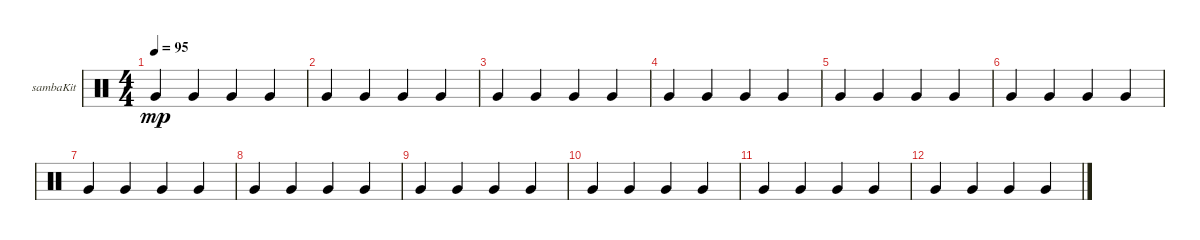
\defaultSystemsLayout 4
\bracketExtendMode groupsimilarinstruments
\firstSystemTrackNameOrientation horizontal
\otherSystemsTrackNameOrientation horizontal
\track ("Kit-Samba" "sambaKit") {instrument percussion}
\staff {score}
\articulation defaults
\ts (4 4)
\tempo 95
\clef neutral
\ks c "Very Low Tom (hit)".4{dy mp} "Very Low Tom (hit)".4 "Very Low Tom (hit)".4 "Very Low Tom (hit)".4
|
"Very Low Tom (hit)".4 "Very Low Tom (hit)".4 "Very Low Tom (hit)".4 "Very Low Tom (hit)".4 |
"Very Low Tom (hit)".4 "Very Low Tom (hit)".4 "Very Low Tom (hit)".4 "Very Low Tom (hit)".4 |
"Very Low Tom (hit)".4 "Very Low Tom (hit)".4 "Very Low Tom (hit)".4 "Very Low Tom (hit)".4 |
"Very Low Tom (hit)".4 "Very Low Tom (hit)".4 "Very Low Tom (hit)".4 "Very Low Tom (hit)".4 |
"Very Low Tom (hit)".4 "Very Low Tom (hit)".4 "Very Low Tom (hit)".4 "Very Low Tom (hit)".4 |
"Very Low Tom (hit)".4 "Very Low Tom (hit)".4 "Very Low Tom (hit)".4 "Very Low Tom (hit)".4 |
"Very Low Tom (hit)".4 "Very Low Tom (hit)".4 "Very Low Tom (hit)".4 "Very Low Tom (hit)".4 |
"Very Low Tom (hit)".4 "Very Low Tom (hit)".4 "Very Low Tom (hit)".4 "Very Low Tom (hit)".4 |
"Very Low Tom (hit)".4 "Very Low Tom (hit)".4 "Very Low Tom (hit)".4 "Very Low Tom (hit)".4 |
"Very Low Tom (hit)".4 "Very Low Tom (hit)".4 "Very Low Tom (hit)".4 "Very Low Tom (hit)".4 |
"Very Low Tom (hit)".4 "Very Low Tom (hit)".4 "Very Low Tom (hit)".4 "Very Low Tom (hit)".4
